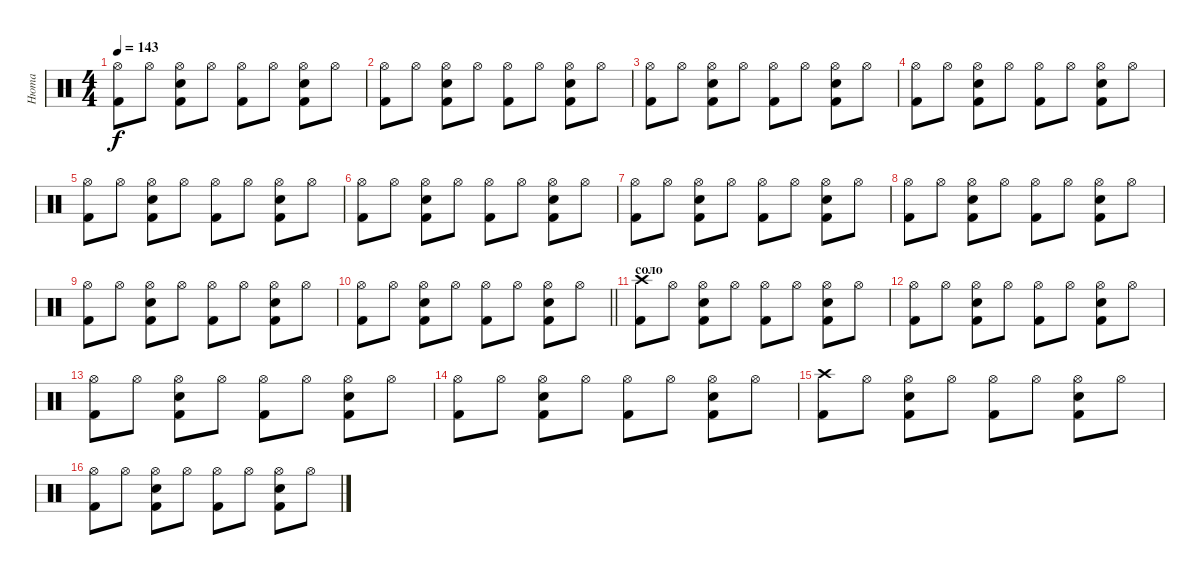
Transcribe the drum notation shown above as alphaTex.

\track ("Нюта" "Нюта") {instrument percussion}
\staff {score}
\articulation defaults
\ts (4 4)
\tempo 143
\clef neutral
\ks c
("Hi-Hat (open)" "Kick (hit) 2").8{dy f} "Hi-Hat (open)".8 ("Hi-Hat (open)" "Snare (hit) 2" "Kick (hit) 2").8 "Hi-Hat (open)".8 ("Hi-Hat (open)" "Kick (hit) 2").8 "Hi-Hat (open)".8 ("Hi-Hat (open)" "Snare (hit) 2" "Kick (hit) 2").8 "Hi-Hat (open)".8 |
("Hi-Hat (open)" "Kick (hit) 2").8 "Hi-Hat (open)".8 ("Hi-Hat (open)" "Snare (hit) 2" "Kick (hit) 2").8 "Hi-Hat (open)".8 ("Hi-Hat (open)" "Kick (hit) 2").8 "Hi-Hat (open)".8 ("Hi-Hat (open)" "Snare (hit) 2" "Kick (hit) 2").8 "Hi-Hat (open)".8 |
("Hi-Hat (open)" "Kick (hit) 2").8 "Hi-Hat (open)".8 ("Hi-Hat (open)" "Snare (hit) 2" "Kick (hit) 2").8 "Hi-Hat (open)".8 ("Hi-Hat (open)" "Kick (hit) 2").8 "Hi-Hat (open)".8 ("Hi-Hat (open)" "Snare (hit) 2" "Kick (hit) 2").8 "Hi-Hat (open)".8 |
("Hi-Hat (open)" "Kick (hit) 2").8 "Hi-Hat (open)".8 ("Hi-Hat (open)" "Snare (hit) 2" "Kick (hit) 2").8 "Hi-Hat (open)".8 ("Hi-Hat (open)" "Kick (hit) 2").8 "Hi-Hat (open)".8 ("Hi-Hat (open)" "Snare (hit) 2" "Kick (hit) 2").8 "Hi-Hat (open)".8 |
("Hi-Hat (open)" "Kick (hit) 2").8 "Hi-Hat (open)".8 ("Hi-Hat (open)" "Snare (hit) 2" "Kick (hit) 2").8 "Hi-Hat (open)".8 ("Hi-Hat (open)" "Kick (hit) 2").8 "Hi-Hat (open)".8 ("Hi-Hat (open)" "Snare (hit) 2" "Kick (hit) 2").8 "Hi-Hat (open)".8 |
("Hi-Hat (open)" "Kick (hit) 2").8 "Hi-Hat (open)".8 ("Hi-Hat (open)" "Snare (hit) 2" "Kick (hit) 2").8 "Hi-Hat (open)".8 ("Hi-Hat (open)" "Kick (hit) 2").8 "Hi-Hat (open)".8 ("Hi-Hat (open)" "Snare (hit) 2" "Kick (hit) 2").8 "Hi-Hat (open)".8 |
("Hi-Hat (open)" "Kick (hit) 2").8 "Hi-Hat (open)".8 ("Hi-Hat (open)" "Snare (hit) 2" "Kick (hit) 2").8 "Hi-Hat (open)".8 ("Hi-Hat (open)" "Kick (hit) 2").8 "Hi-Hat (open)".8 ("Hi-Hat (open)" "Snare (hit) 2" "Kick (hit) 2").8 "Hi-Hat (open)".8 |
("Hi-Hat (open)" "Kick (hit) 2").8 "Hi-Hat (open)".8 ("Hi-Hat (open)" "Snare (hit) 2" "Kick (hit) 2").8 "Hi-Hat (open)".8 ("Hi-Hat (open)" "Kick (hit) 2").8 "Hi-Hat (open)".8 ("Hi-Hat (open)" "Snare (hit) 2" "Kick (hit) 2").8 "Hi-Hat (open)".8 |
("Hi-Hat (open)" "Kick (hit) 2").8 "Hi-Hat (open)".8 ("Hi-Hat (open)" "Snare (hit) 2" "Kick (hit) 2").8 "Hi-Hat (open)".8 ("Hi-Hat (open)" "Kick (hit) 2").8 "Hi-Hat (open)".8 ("Hi-Hat (open)" "Snare (hit) 2" "Kick (hit) 2").8 "Hi-Hat (open)".8 |
\barLineRight lightlight
("Hi-Hat (open)" "Kick (hit) 2").8 "Hi-Hat (open)".8 ("Hi-Hat (open)" "Snare (hit) 2" "Kick (hit) 2").8 "Hi-Hat (open)".8 ("Hi-Hat (open)" "Kick (hit) 2").8 "Hi-Hat (open)".8 ("Hi-Hat (open)" "Snare (hit) 2" "Kick (hit) 2").8 "Hi-Hat (open)".8 |
\section ("" "соло")
("Crash high (hit)" "Kick (hit) 2").8 "Hi-Hat (open)".8 ("Hi-Hat (open)" "Snare (hit) 2" "Kick (hit) 2").8 "Hi-Hat (open)".8 ("Hi-Hat (open)" "Kick (hit) 2").8 "Hi-Hat (open)".8 ("Hi-Hat (open)" "Snare (hit) 2" "Kick (hit) 2").8 "Hi-Hat (open)".8 |
("Hi-Hat (open)" "Kick (hit) 2").8 "Hi-Hat (open)".8 ("Hi-Hat (open)" "Snare (hit) 2" "Kick (hit) 2").8 "Hi-Hat (open)".8 ("Hi-Hat (open)" "Kick (hit) 2").8 "Hi-Hat (open)".8 ("Hi-Hat (open)" "Snare (hit) 2" "Kick (hit) 2").8 "Hi-Hat (open)".8 |
("Hi-Hat (open)" "Kick (hit) 2").8 "Hi-Hat (open)".8 ("Hi-Hat (open)" "Snare (hit) 2" "Kick (hit) 2").8 "Hi-Hat (open)".8 ("Hi-Hat (open)" "Kick (hit) 2").8 "Hi-Hat (open)".8 ("Hi-Hat (open)" "Snare (hit) 2" "Kick (hit) 2").8 "Hi-Hat (open)".8 |
("Hi-Hat (open)" "Kick (hit) 2").8 "Hi-Hat (open)".8 ("Hi-Hat (open)" "Snare (hit) 2" "Kick (hit) 2").8 "Hi-Hat (open)".8 ("Hi-Hat (open)" "Kick (hit) 2").8 "Hi-Hat (open)".8 ("Hi-Hat (open)" "Snare (hit) 2" "Kick (hit) 2").8 "Hi-Hat (open)".8 |
("Crash high (hit)" "Kick (hit) 2").8 "Hi-Hat (open)".8 ("Hi-Hat (open)" "Snare (hit) 2" "Kick (hit) 2").8 "Hi-Hat (open)".8 ("Hi-Hat (open)" "Kick (hit) 2").8 "Hi-Hat (open)".8 ("Hi-Hat (open)" "Snare (hit) 2" "Kick (hit) 2").8 "Hi-Hat (open)".8 |
("Hi-Hat (open)" "Kick (hit) 2").8 "Hi-Hat (open)".8 ("Hi-Hat (open)" "Snare (hit) 2" "Kick (hit) 2").8 "Hi-Hat (open)".8 ("Hi-Hat (open)" "Kick (hit) 2").8 "Hi-Hat (open)".8 ("Hi-Hat (open)" "Snare (hit) 2" "Kick (hit) 2").8 "Hi-Hat (open)".8
